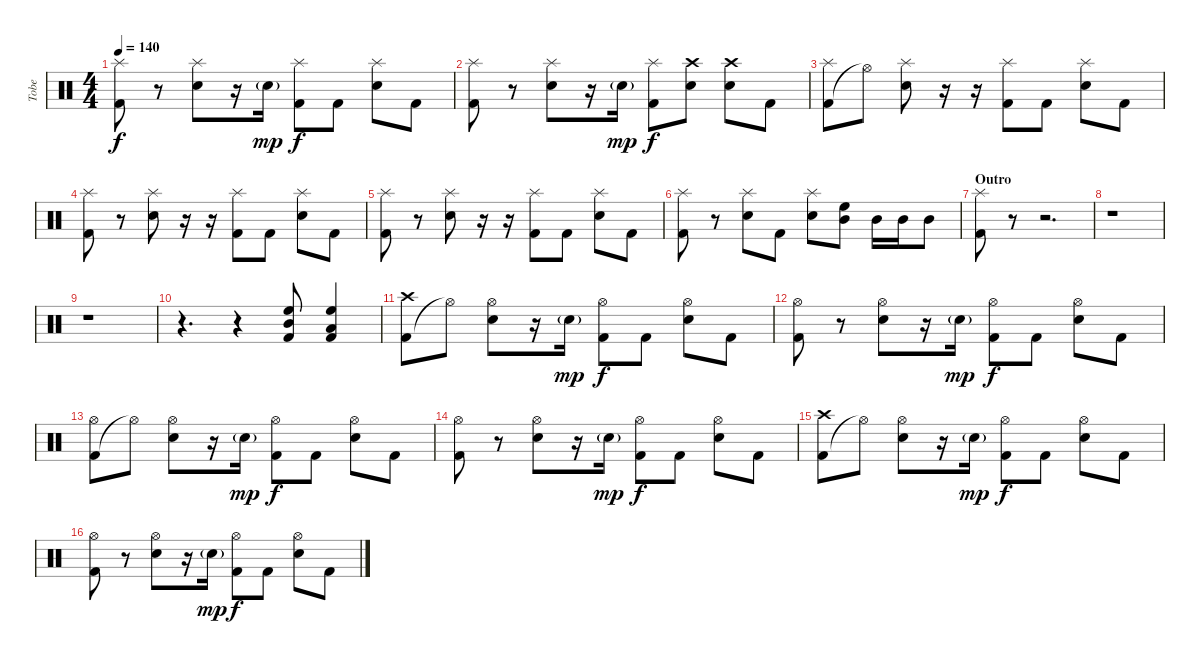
\track ("Tobe" "Tobe") {instrument percussion}
\staff {score}
\articulation defaults
\ts (4 4)
\tempo 140
\clef neutral
\ks c
("Kick (hit) 2" "Splash (hit)").8{dy f} r.8 ("Electric Snare (hit)" "Splash (hit)").8 r.16 "Electric Snare (hit)"{g}.16{dy mp} ("Kick (hit) 2" "Splash (hit)").8{dy f} "Kick (hit) 2".8 ("Electric Snare (hit)" "Splash (hit)").8 "Kick (hit) 2".8 |
("Kick (hit) 2" "Splash (hit)").8 r.8 ("Electric Snare (hit)" "Splash (hit)").8 r.16 "Electric Snare (hit)"{g}.16{dy mp} ("Kick (hit) 2" "Splash (hit)").8{dy f} ("Electric Snare (hit)" "Crash high (hit)").8 ("Electric Snare (hit)" "Crash high (hit)").8 "Kick (hit) 2".8 |
("Kick (hit) 2" "Splash (hit)").8 "Hi-Hat (open)"{t}.8 ("Electric Snare (hit)" "Splash (hit)").8 r.16 r.16 ("Kick (hit) 2" "Splash (hit)").8 "Kick (hit) 2".8 ("Electric Snare (hit)" "Splash (hit)").8 "Kick (hit) 2".8 |
("Kick (hit) 2" "Splash (hit)").8 r.8 ("Electric Snare (hit)" "Splash (hit)").8 r.16 r.16 ("Kick (hit) 2" "Splash (hit)").8 "Kick (hit) 2".8 ("Electric Snare (hit)" "Splash (hit)").8 "Kick (hit) 2".8 |
("Kick (hit) 2" "Splash (hit)").8 r.8 ("Electric Snare (hit)" "Splash (hit)").8 r.16 r.16 ("Kick (hit) 2" "Splash (hit)").8 "Kick (hit) 2".8 ("Electric Snare (hit)" "Splash (hit)").8 "Kick (hit) 2".8 |
("Kick (hit) 2" "Splash (hit)").8 r.8 ("Electric Snare (hit)" "Splash (hit)").8 "Kick (hit) 2".8 ("Electric Snare (hit)" "Splash (hit)").8 ("High Floor Tom (hit)" "Mid Tom (hit)").8 "Mid Tom (hit)".16 "Mid Tom (hit)".16 "Mid Tom (hit)".8 |
\section ("" "Outro")
("Kick (hit) 2" "Splash (hit)").8 r.8 r.2{d} |
r.1 |
r.1 |
r.4{d} r.4 ("Kick (hit) 2" "High Floor Tom (hit)" "Mid Tom (hit)").8 ("Kick (hit) 2" "Low Floor Tom (hit)" "High Floor Tom (hit)").4 |
("Kick (hit) 2" "Crash high (hit)").8 "Hi-Hat (open)"{t}.8 ("Electric Snare (hit)" "Hi-Hat (open)").8 r.16 "Electric Snare (hit)"{g}.16{dy mp} ("Kick (hit) 2" "Hi-Hat (open)").8{dy f} "Kick (hit) 2".8 ("Electric Snare (hit)" "Hi-Hat (open)").8 "Kick (hit) 2".8 |
("Kick (hit) 2" "Hi-Hat (open)").8 r.8 ("Electric Snare (hit)" "Hi-Hat (open)").8 r.16 "Electric Snare (hit)"{g}.16{dy mp} ("Kick (hit) 2" "Hi-Hat (open)").8{dy f} "Kick (hit) 2".8 ("Electric Snare (hit)" "Hi-Hat (open)").8 "Kick (hit) 2".8 |
("Kick (hit) 2" "Hi-Hat (open)").8 "Hi-Hat (open)"{t}.8 ("Electric Snare (hit)" "Hi-Hat (open)").8 r.16 "Electric Snare (hit)"{g}.16{dy mp} ("Kick (hit) 2" "Hi-Hat (open)").8{dy f} "Kick (hit) 2".8 ("Electric Snare (hit)" "Hi-Hat (open)").8 "Kick (hit) 2".8 |
("Kick (hit) 2" "Hi-Hat (open)").8 r.8 ("Electric Snare (hit)" "Hi-Hat (open)").8 r.16 "Electric Snare (hit)"{g}.16{dy mp} ("Kick (hit) 2" "Hi-Hat (open)").8{dy f} "Kick (hit) 2".8 ("Electric Snare (hit)" "Hi-Hat (open)").8 "Kick (hit) 2".8 |
("Kick (hit) 2" "Crash high (hit)").8 "Hi-Hat (open)"{t}.8 ("Electric Snare (hit)" "Hi-Hat (open)").8 r.16 "Electric Snare (hit)"{g}.16{dy mp} ("Kick (hit) 2" "Hi-Hat (open)").8{dy f} "Kick (hit) 2".8 ("Electric Snare (hit)" "Hi-Hat (open)").8 "Kick (hit) 2".8 |
("Kick (hit) 2" "Hi-Hat (open)").8 r.8 ("Electric Snare (hit)" "Hi-Hat (open)").8 r.16 "Electric Snare (hit)"{g}.16{dy mp} ("Kick (hit) 2" "Hi-Hat (open)").8{dy f} "Kick (hit) 2".8 ("Electric Snare (hit)" "Hi-Hat (open)").8 "Kick (hit) 2".8
